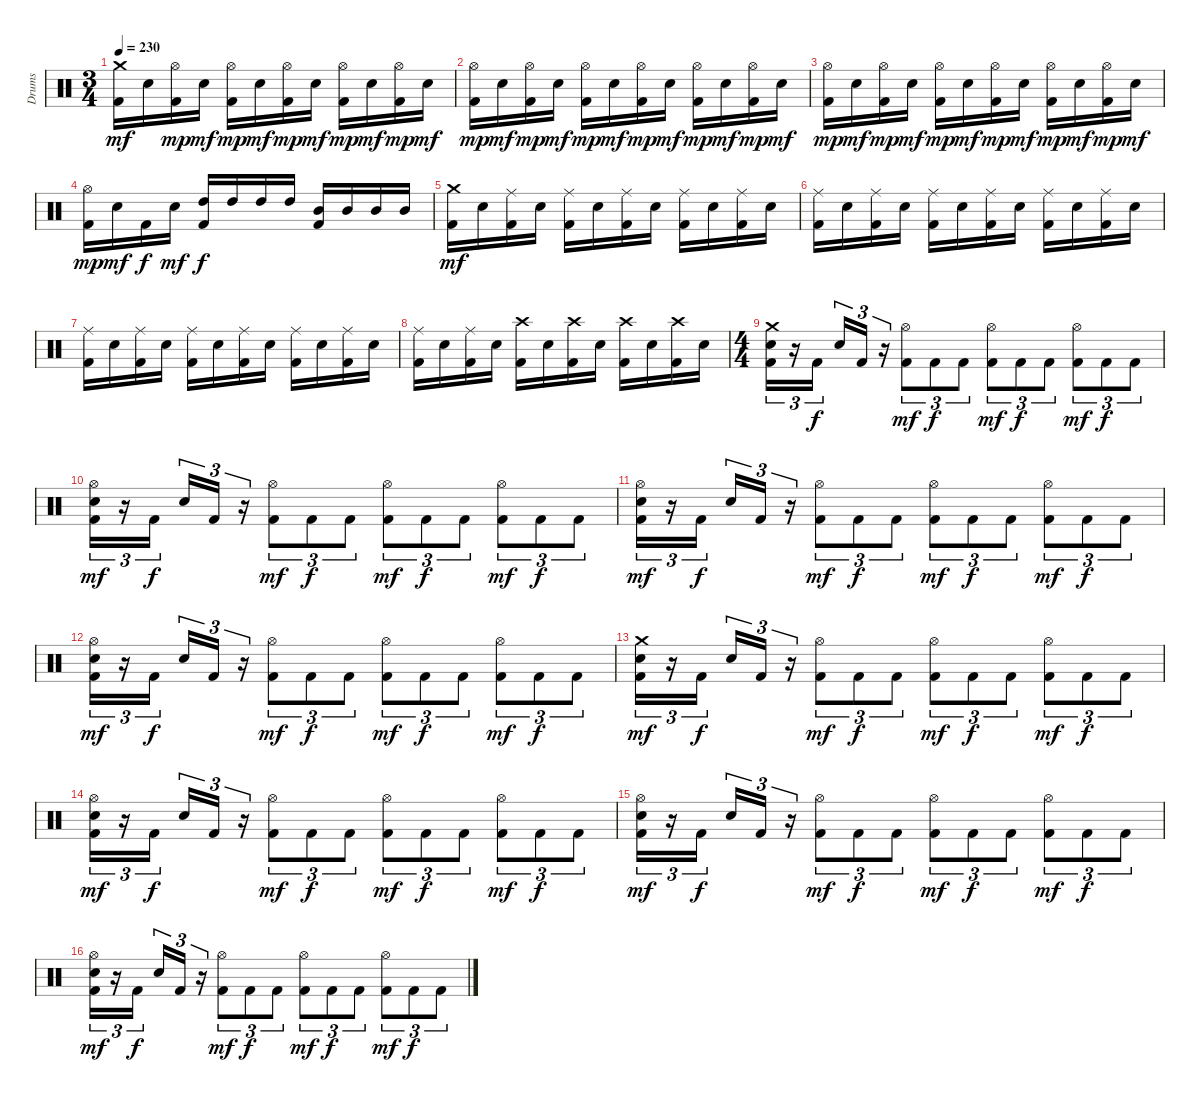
\track ("Drums" "Drums") {instrument percussion}
\staff {score}
\articulation defaults
\ts (3 4)
\tempo 230
\clef neutral
\ks c
("Crash medium (hit)" "Kick (hit) 2").16{dy mf} "Electric Snare (hit)".16 ("Hi-Hat (open)" "Kick (hit) 2").16{dy mp} "Electric Snare (hit)".16{dy mf} ("Hi-Hat (open)" "Kick (hit) 2").16{dy mp} "Electric Snare (hit)".16{dy mf} ("Hi-Hat (open)" "Kick (hit) 2").16{dy mp} "Electric Snare (hit)".16{dy mf} ("Hi-Hat (open)" "Kick (hit) 2").16{dy mp} "Electric Snare (hit)".16{dy mf} ("Hi-Hat (open)" "Kick (hit) 2").16{dy mp} "Electric Snare (hit)".16{dy mf} |
("Hi-Hat (open)" "Kick (hit) 2").16{dy mp} "Electric Snare (hit)".16{dy mf} ("Hi-Hat (open)" "Kick (hit) 2").16{dy mp} "Electric Snare (hit)".16{dy mf} ("Hi-Hat (open)" "Kick (hit) 2").16{dy mp} "Electric Snare (hit)".16{dy mf} ("Hi-Hat (open)" "Kick (hit) 2").16{dy mp} "Electric Snare (hit)".16{dy mf} ("Hi-Hat (open)" "Kick (hit) 2").16{dy mp} "Electric Snare (hit)".16{dy mf} ("Hi-Hat (open)" "Kick (hit) 2").16{dy mp} "Electric Snare (hit)".16{dy mf} |
("Hi-Hat (open)" "Kick (hit) 2").16{dy mp} "Electric Snare (hit)".16{dy mf} ("Hi-Hat (open)" "Kick (hit) 2").16{dy mp} "Electric Snare (hit)".16{dy mf} ("Hi-Hat (open)" "Kick (hit) 2").16{dy mp} "Electric Snare (hit)".16{dy mf} ("Hi-Hat (open)" "Kick (hit) 2").16{dy mp} "Electric Snare (hit)".16{dy mf} ("Hi-Hat (open)" "Kick (hit) 2").16{dy mp} "Electric Snare (hit)".16{dy mf} ("Hi-Hat (open)" "Kick (hit) 2").16{dy mp} "Electric Snare (hit)".16{dy mf} |
("Hi-Hat (open)" "Kick (hit) 2").16{dy mp} "Electric Snare (hit)".16{dy mf} "Kick (hit) 2".16{dy f} "Electric Snare (hit)".16{dy mf} ("High Tom (hit)" "Kick (hit) 2").16{dy f} "High Tom (hit)".16 "High Tom (hit)".16 "High Tom (hit)".16 ("Mid Tom (hit)" "Kick (hit) 2").16 "Mid Tom (hit)".16 "Mid Tom (hit)".16 "Mid Tom (hit)".16 |
("Crash medium (hit)" "Kick (hit) 2").16{dy mf} "Electric Snare (hit)".16 ("Ride (middle)" "Kick (hit) 2").16 "Electric Snare (hit)".16 ("Ride (middle)" "Kick (hit) 2").16 "Electric Snare (hit)".16 ("Ride (middle)" "Kick (hit) 2").16 "Electric Snare (hit)".16 ("Ride (middle)" "Kick (hit) 2").16 "Electric Snare (hit)".16 ("Ride (middle)" "Kick (hit) 2").16 "Electric Snare (hit)".16 |
("Ride (middle)" "Kick (hit) 2").16 "Electric Snare (hit)".16 ("Ride (middle)" "Kick (hit) 2").16 "Electric Snare (hit)".16 ("Ride (middle)" "Kick (hit) 2").16 "Electric Snare (hit)".16 ("Ride (middle)" "Kick (hit) 2").16 "Electric Snare (hit)".16 ("Ride (middle)" "Kick (hit) 2").16 "Electric Snare (hit)".16 ("Ride (middle)" "Kick (hit) 2").16 "Electric Snare (hit)".16 |
("Ride (middle)" "Kick (hit) 2").16 "Electric Snare (hit)".16 ("Ride (middle)" "Kick (hit) 2").16 "Electric Snare (hit)".16 ("Ride (middle)" "Kick (hit) 2").16 "Electric Snare (hit)".16 ("Ride (middle)" "Kick (hit) 2").16 "Electric Snare (hit)".16 ("Ride (middle)" "Kick (hit) 2").16 "Electric Snare (hit)".16 ("Ride (middle)" "Kick (hit) 2").16 "Electric Snare (hit)".16 |
("Ride (middle)" "Kick (hit) 2").16 "Electric Snare (hit)".16 ("Ride (middle)" "Kick (hit) 2").16 "Electric Snare (hit)".16 ("Crash high (hit)" "Kick (hit) 2").16 "Electric Snare (hit)".16 ("Crash high (hit)" "Kick (hit) 2").16 "Electric Snare (hit)".16 ("Crash high (hit)" "Kick (hit) 2").16 "Electric Snare (hit)".16 ("Crash high (hit)" "Kick (hit) 2").16 "Electric Snare (hit)".16 |
\ts (4 4)
("Crash medium (hit)" "Electric Snare (hit)" "Kick (hit) 2").16{tu (3 2)} r.16{tu (3 2)} "Kick (hit) 2".16{tu (3 2) dy f beam splitsecondary} "Electric Snare (hit)".16{tu (3 2)} "Kick (hit) 2".16{tu (3 2)} r.16{tu (3 2)} ("Hi-Hat (open)" "Kick (hit) 2").8{tu (3 2) dy mf} "Kick (hit) 2".8{tu (3 2) dy f} "Kick (hit) 2".8{tu (3 2)} ("Hi-Hat (open)" "Kick (hit) 2").8{tu (3 2) dy mf} "Kick (hit) 2".8{tu (3 2) dy f} "Kick (hit) 2".8{tu (3 2)} ("Hi-Hat (open)" "Kick (hit) 2").8{tu (3 2) dy mf} "Kick (hit) 2".8{tu (3 2) dy f} "Kick (hit) 2".8{tu (3 2)} |
("Hi-Hat (open)" "Electric Snare (hit)" "Kick (hit) 2").16{tu (3 2) dy mf} r.16{tu (3 2)} "Kick (hit) 2".16{tu (3 2) dy f beam splitsecondary} "Electric Snare (hit)".16{tu (3 2)} "Kick (hit) 2".16{tu (3 2)} r.16{tu (3 2)} ("Hi-Hat (open)" "Kick (hit) 2").8{tu (3 2) dy mf} "Kick (hit) 2".8{tu (3 2) dy f} "Kick (hit) 2".8{tu (3 2)} ("Hi-Hat (open)" "Kick (hit) 2").8{tu (3 2) dy mf} "Kick (hit) 2".8{tu (3 2) dy f} "Kick (hit) 2".8{tu (3 2)} ("Hi-Hat (open)" "Kick (hit) 2").8{tu (3 2) dy mf} "Kick (hit) 2".8{tu (3 2) dy f} "Kick (hit) 2".8{tu (3 2)} |
("Hi-Hat (open)" "Electric Snare (hit)" "Kick (hit) 2").16{tu (3 2) dy mf} r.16{tu (3 2)} "Kick (hit) 2".16{tu (3 2) dy f beam splitsecondary} "Electric Snare (hit)".16{tu (3 2)} "Kick (hit) 2".16{tu (3 2)} r.16{tu (3 2)} ("Hi-Hat (open)" "Kick (hit) 2").8{tu (3 2) dy mf} "Kick (hit) 2".8{tu (3 2) dy f} "Kick (hit) 2".8{tu (3 2)} ("Hi-Hat (open)" "Kick (hit) 2").8{tu (3 2) dy mf} "Kick (hit) 2".8{tu (3 2) dy f} "Kick (hit) 2".8{tu (3 2)} ("Hi-Hat (open)" "Kick (hit) 2").8{tu (3 2) dy mf} "Kick (hit) 2".8{tu (3 2) dy f} "Kick (hit) 2".8{tu (3 2)} |
("Hi-Hat (open)" "Electric Snare (hit)" "Kick (hit) 2").16{tu (3 2) dy mf} r.16{tu (3 2)} "Kick (hit) 2".16{tu (3 2) dy f beam splitsecondary} "Electric Snare (hit)".16{tu (3 2)} "Kick (hit) 2".16{tu (3 2)} r.16{tu (3 2)} ("Hi-Hat (open)" "Kick (hit) 2").8{tu (3 2) dy mf} "Kick (hit) 2".8{tu (3 2) dy f} "Kick (hit) 2".8{tu (3 2)} ("Hi-Hat (open)" "Kick (hit) 2").8{tu (3 2) dy mf} "Kick (hit) 2".8{tu (3 2) dy f} "Kick (hit) 2".8{tu (3 2)} ("Hi-Hat (open)" "Kick (hit) 2").8{tu (3 2) dy mf} "Kick (hit) 2".8{tu (3 2) dy f} "Kick (hit) 2".8{tu (3 2)} |
("Crash medium (hit)" "Electric Snare (hit)" "Kick (hit) 2").16{tu (3 2) dy mf} r.16{tu (3 2)} "Kick (hit) 2".16{tu (3 2) dy f beam splitsecondary} "Electric Snare (hit)".16{tu (3 2)} "Kick (hit) 2".16{tu (3 2)} r.16{tu (3 2)} ("Hi-Hat (open)" "Kick (hit) 2").8{tu (3 2) dy mf} "Kick (hit) 2".8{tu (3 2) dy f} "Kick (hit) 2".8{tu (3 2)} ("Hi-Hat (open)" "Kick (hit) 2").8{tu (3 2) dy mf} "Kick (hit) 2".8{tu (3 2) dy f} "Kick (hit) 2".8{tu (3 2)} ("Hi-Hat (open)" "Kick (hit) 2").8{tu (3 2) dy mf} "Kick (hit) 2".8{tu (3 2) dy f} "Kick (hit) 2".8{tu (3 2)} |
("Hi-Hat (open)" "Electric Snare (hit)" "Kick (hit) 2").16{tu (3 2) dy mf} r.16{tu (3 2)} "Kick (hit) 2".16{tu (3 2) dy f beam splitsecondary} "Electric Snare (hit)".16{tu (3 2)} "Kick (hit) 2".16{tu (3 2)} r.16{tu (3 2)} ("Hi-Hat (open)" "Kick (hit) 2").8{tu (3 2) dy mf} "Kick (hit) 2".8{tu (3 2) dy f} "Kick (hit) 2".8{tu (3 2)} ("Hi-Hat (open)" "Kick (hit) 2").8{tu (3 2) dy mf} "Kick (hit) 2".8{tu (3 2) dy f} "Kick (hit) 2".8{tu (3 2)} ("Hi-Hat (open)" "Kick (hit) 2").8{tu (3 2) dy mf} "Kick (hit) 2".8{tu (3 2) dy f} "Kick (hit) 2".8{tu (3 2)} |
("Hi-Hat (open)" "Electric Snare (hit)" "Kick (hit) 2").16{tu (3 2) dy mf} r.16{tu (3 2)} "Kick (hit) 2".16{tu (3 2) dy f beam splitsecondary} "Electric Snare (hit)".16{tu (3 2)} "Kick (hit) 2".16{tu (3 2)} r.16{tu (3 2)} ("Hi-Hat (open)" "Kick (hit) 2").8{tu (3 2) dy mf} "Kick (hit) 2".8{tu (3 2) dy f} "Kick (hit) 2".8{tu (3 2)} ("Hi-Hat (open)" "Kick (hit) 2").8{tu (3 2) dy mf} "Kick (hit) 2".8{tu (3 2) dy f} "Kick (hit) 2".8{tu (3 2)} ("Hi-Hat (open)" "Kick (hit) 2").8{tu (3 2) dy mf} "Kick (hit) 2".8{tu (3 2) dy f} "Kick (hit) 2".8{tu (3 2)} |
("Hi-Hat (open)" "Electric Snare (hit)" "Kick (hit) 2").16{tu (3 2) dy mf} r.16{tu (3 2)} "Kick (hit) 2".16{tu (3 2) dy f beam splitsecondary} "Electric Snare (hit)".16{tu (3 2)} "Kick (hit) 2".16{tu (3 2)} r.16{tu (3 2)} ("Hi-Hat (open)" "Kick (hit) 2").8{tu (3 2) dy mf} "Kick (hit) 2".8{tu (3 2) dy f} "Kick (hit) 2".8{tu (3 2)} ("Hi-Hat (open)" "Kick (hit) 2").8{tu (3 2) dy mf} "Kick (hit) 2".8{tu (3 2) dy f} "Kick (hit) 2".8{tu (3 2)} ("Hi-Hat (open)" "Kick (hit) 2").8{tu (3 2) dy mf} "Kick (hit) 2".8{tu (3 2) dy f} "Kick (hit) 2".8{tu (3 2)}
